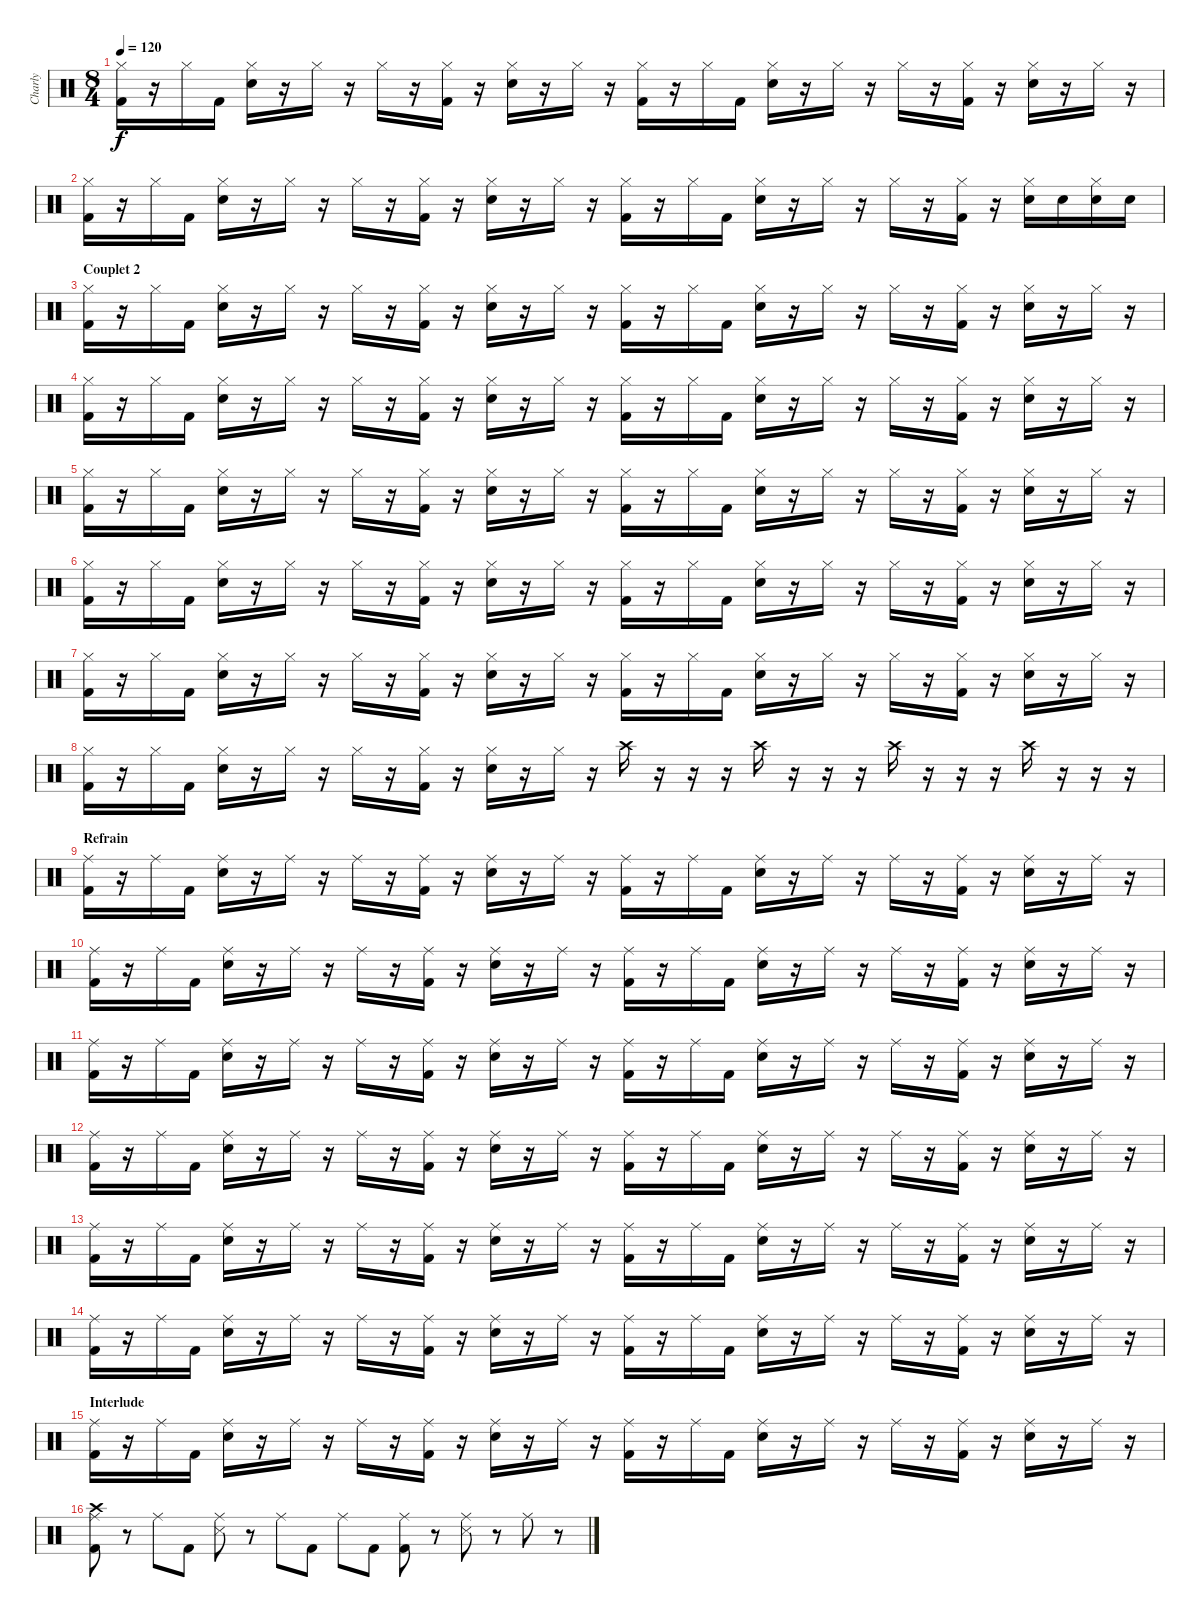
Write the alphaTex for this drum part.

\track ("Charly" "Charly") {instrument percussion}
\staff {score}
\articulation defaults
\ts (8 4)
\tempo 120
\clef neutral
\ks c
("Hi-Hat (closed)" "Kick (hit) 2").16{dy f} r.16 "Hi-Hat (closed)".16 "Kick (hit) 2".16 ("Hi-Hat (closed)" "Snare (hit) 2").16 r.16 "Hi-Hat (closed)".16 r.16 "Hi-Hat (closed)".16 r.16 ("Hi-Hat (closed)" "Kick (hit) 2").16 r.16 ("Hi-Hat (closed)" "Snare (hit) 2").16 r.16 "Hi-Hat (closed)".16 r.16 ("Hi-Hat (closed)" "Kick (hit) 2").16 r.16 "Hi-Hat (closed)".16 "Kick (hit) 2".16 ("Hi-Hat (closed)" "Snare (hit) 2").16 r.16 "Hi-Hat (closed)".16 r.16 "Hi-Hat (closed)".16 r.16 ("Hi-Hat (closed)" "Kick (hit) 2").16 r.16 ("Hi-Hat (closed)" "Snare (hit) 2").16 r.16 "Hi-Hat (closed)".16 r.16 |
("Hi-Hat (closed)" "Kick (hit) 2").16 r.16 "Hi-Hat (closed)".16 "Kick (hit) 2".16 ("Hi-Hat (closed)" "Snare (hit) 2").16 r.16 "Hi-Hat (closed)".16 r.16 "Hi-Hat (closed)".16 r.16 ("Hi-Hat (closed)" "Kick (hit) 2").16 r.16 ("Hi-Hat (closed)" "Snare (hit) 2").16 r.16 "Hi-Hat (closed)".16 r.16 ("Hi-Hat (closed)" "Kick (hit) 2").16 r.16 "Hi-Hat (closed)".16 "Kick (hit) 2".16 ("Hi-Hat (closed)" "Snare (hit) 2").16 r.16 "Hi-Hat (closed)".16 r.16 "Hi-Hat (closed)".16 r.16 ("Hi-Hat (closed)" "Kick (hit) 2").16 r.16 ("Hi-Hat (closed)" "Snare (hit) 2").16 "Snare (hit) 2".16 ("Hi-Hat (closed)" "Snare (hit) 2").16 "Snare (hit) 2".16 |
\section ("" "Couplet 2")
("Hi-Hat (closed)" "Kick (hit) 2").16 r.16 "Hi-Hat (closed)".16 "Kick (hit) 2".16 ("Hi-Hat (closed)" "Snare (hit) 2").16 r.16 "Hi-Hat (closed)".16 r.16 "Hi-Hat (closed)".16 r.16 ("Hi-Hat (closed)" "Kick (hit) 2").16 r.16 ("Hi-Hat (closed)" "Snare (hit) 2").16 r.16 "Hi-Hat (closed)".16 r.16 ("Hi-Hat (closed)" "Kick (hit) 2").16 r.16 "Hi-Hat (closed)".16 "Kick (hit) 2".16 ("Hi-Hat (closed)" "Snare (hit) 2").16 r.16 "Hi-Hat (closed)".16 r.16 "Hi-Hat (closed)".16 r.16 ("Hi-Hat (closed)" "Kick (hit) 2").16 r.16 ("Hi-Hat (closed)" "Snare (hit) 2").16 r.16 "Hi-Hat (closed)".16 r.16 |
("Hi-Hat (closed)" "Kick (hit) 2").16 r.16 "Hi-Hat (closed)".16 "Kick (hit) 2".16 ("Hi-Hat (closed)" "Snare (hit) 2").16 r.16 "Hi-Hat (closed)".16 r.16 "Hi-Hat (closed)".16 r.16 ("Hi-Hat (closed)" "Kick (hit) 2").16 r.16 ("Hi-Hat (closed)" "Snare (hit) 2").16 r.16 "Hi-Hat (closed)".16 r.16 ("Hi-Hat (closed)" "Kick (hit) 2").16 r.16 "Hi-Hat (closed)".16 "Kick (hit) 2".16 ("Hi-Hat (closed)" "Snare (hit) 2").16 r.16 "Hi-Hat (closed)".16 r.16 "Hi-Hat (closed)".16 r.16 ("Hi-Hat (closed)" "Kick (hit) 2").16 r.16 ("Hi-Hat (closed)" "Snare (hit) 2").16 r.16 "Hi-Hat (closed)".16 r.16 |
("Hi-Hat (closed)" "Kick (hit) 2").16 r.16 "Hi-Hat (closed)".16 "Kick (hit) 2".16 ("Hi-Hat (closed)" "Snare (hit) 2").16 r.16 "Hi-Hat (closed)".16 r.16 "Hi-Hat (closed)".16 r.16 ("Hi-Hat (closed)" "Kick (hit) 2").16 r.16 ("Hi-Hat (closed)" "Snare (hit) 2").16 r.16 "Hi-Hat (closed)".16 r.16 ("Hi-Hat (closed)" "Kick (hit) 2").16 r.16 "Hi-Hat (closed)".16 "Kick (hit) 2".16 ("Hi-Hat (closed)" "Snare (hit) 2").16 r.16 "Hi-Hat (closed)".16 r.16 "Hi-Hat (closed)".16 r.16 ("Hi-Hat (closed)" "Kick (hit) 2").16 r.16 ("Hi-Hat (closed)" "Snare (hit) 2").16 r.16 "Hi-Hat (closed)".16 r.16 |
("Hi-Hat (closed)" "Kick (hit) 2").16 r.16 "Hi-Hat (closed)".16 "Kick (hit) 2".16 ("Hi-Hat (closed)" "Snare (hit) 2").16 r.16 "Hi-Hat (closed)".16 r.16 "Hi-Hat (closed)".16 r.16 ("Hi-Hat (closed)" "Kick (hit) 2").16 r.16 ("Hi-Hat (closed)" "Snare (hit) 2").16 r.16 "Hi-Hat (closed)".16 r.16 ("Hi-Hat (closed)" "Kick (hit) 2").16 r.16 "Hi-Hat (closed)".16 "Kick (hit) 2".16 ("Hi-Hat (closed)" "Snare (hit) 2").16 r.16 "Hi-Hat (closed)".16 r.16 "Hi-Hat (closed)".16 r.16 ("Hi-Hat (closed)" "Kick (hit) 2").16 r.16 ("Hi-Hat (closed)" "Snare (hit) 2").16 r.16 "Hi-Hat (closed)".16 r.16 |
("Hi-Hat (closed)" "Kick (hit) 2").16 r.16 "Hi-Hat (closed)".16 "Kick (hit) 2".16 ("Hi-Hat (closed)" "Snare (hit) 2").16 r.16 "Hi-Hat (closed)".16 r.16 "Hi-Hat (closed)".16 r.16 ("Hi-Hat (closed)" "Kick (hit) 2").16 r.16 ("Hi-Hat (closed)" "Snare (hit) 2").16 r.16 "Hi-Hat (closed)".16 r.16 ("Hi-Hat (closed)" "Kick (hit) 2").16 r.16 "Hi-Hat (closed)".16 "Kick (hit) 2".16 ("Hi-Hat (closed)" "Snare (hit) 2").16 r.16 "Hi-Hat (closed)".16 r.16 "Hi-Hat (closed)".16 r.16 ("Hi-Hat (closed)" "Kick (hit) 2").16 r.16 ("Hi-Hat (closed)" "Snare (hit) 2").16 r.16 "Hi-Hat (closed)".16 r.16 |
("Hi-Hat (closed)" "Kick (hit) 2").16 r.16 "Hi-Hat (closed)".16 "Kick (hit) 2".16 ("Hi-Hat (closed)" "Snare (hit) 2").16 r.16 "Hi-Hat (closed)".16 r.16 "Hi-Hat (closed)".16 r.16 ("Hi-Hat (closed)" "Kick (hit) 2").16 r.16 ("Hi-Hat (closed)" "Snare (hit) 2").16 r.16 "Hi-Hat (closed)".16 r.16 "Crash high (hit)".16 r.16 r.16 r.16 "Crash high (hit)".16 r.16 r.16 r.16 "Crash high (hit)".16 r.16 r.16 r.16 "Crash high (hit)".16 r.16 r.16 r.16 |
\section ("" "Refrain")
("Ride (middle)" "Kick (hit) 2").16 r.16 "Ride (middle)".16 "Kick (hit) 2".16 ("Ride (middle)" "Snare (hit) 2").16 r.16 "Ride (middle)".16 r.16 "Ride (middle)".16 r.16 ("Ride (middle)" "Kick (hit) 2").16 r.16 ("Ride (middle)" "Snare (hit) 2").16 r.16 "Ride (middle)".16 r.16 ("Ride (middle)" "Kick (hit) 2").16 r.16 "Ride (middle)".16 "Kick (hit) 2".16 ("Ride (middle)" "Snare (hit) 2").16 r.16 "Ride (middle)".16 r.16 "Ride (middle)".16 r.16 ("Ride (middle)" "Kick (hit) 2").16 r.16 ("Ride (middle)" "Snare (hit) 2").16 r.16 "Ride (middle)".16 r.16 |
("Ride (middle)" "Kick (hit) 2").16 r.16 "Ride (middle)".16 "Kick (hit) 2".16 ("Ride (middle)" "Snare (hit) 2").16 r.16 "Ride (middle)".16 r.16 "Ride (middle)".16 r.16 ("Ride (middle)" "Kick (hit) 2").16 r.16 ("Ride (middle)" "Snare (hit) 2").16 r.16 "Ride (middle)".16 r.16 ("Ride (middle)" "Kick (hit) 2").16 r.16 "Ride (middle)".16 "Kick (hit) 2".16 ("Ride (middle)" "Snare (hit) 2").16 r.16 "Ride (middle)".16 r.16 "Ride (middle)".16 r.16 ("Ride (middle)" "Kick (hit) 2").16 r.16 ("Ride (middle)" "Snare (hit) 2").16 r.16 "Ride (middle)".16 r.16 |
("Ride (middle)" "Kick (hit) 2").16 r.16 "Ride (middle)".16 "Kick (hit) 2".16 ("Ride (middle)" "Snare (hit) 2").16 r.16 "Ride (middle)".16 r.16 "Ride (middle)".16 r.16 ("Ride (middle)" "Kick (hit) 2").16 r.16 ("Ride (middle)" "Snare (hit) 2").16 r.16 "Ride (middle)".16 r.16 ("Ride (middle)" "Kick (hit) 2").16 r.16 "Ride (middle)".16 "Kick (hit) 2".16 ("Ride (middle)" "Snare (hit) 2").16 r.16 "Ride (middle)".16 r.16 "Ride (middle)".16 r.16 ("Ride (middle)" "Kick (hit) 2").16 r.16 ("Ride (middle)" "Snare (hit) 2").16 r.16 "Ride (middle)".16 r.16 |
("Ride (middle)" "Kick (hit) 2").16 r.16 "Ride (middle)".16 "Kick (hit) 2".16 ("Ride (middle)" "Snare (hit) 2").16 r.16 "Ride (middle)".16 r.16 "Ride (middle)".16 r.16 ("Ride (middle)" "Kick (hit) 2").16 r.16 ("Ride (middle)" "Snare (hit) 2").16 r.16 "Ride (middle)".16 r.16 ("Ride (middle)" "Kick (hit) 2").16 r.16 "Ride (middle)".16 "Kick (hit) 2".16 ("Ride (middle)" "Snare (hit) 2").16 r.16 "Ride (middle)".16 r.16 "Ride (middle)".16 r.16 ("Ride (middle)" "Kick (hit) 2").16 r.16 ("Ride (middle)" "Snare (hit) 2").16 r.16 "Ride (middle)".16 r.16 |
("Ride (middle)" "Kick (hit) 2").16 r.16 "Ride (middle)".16 "Kick (hit) 2".16 ("Ride (middle)" "Snare (hit) 2").16 r.16 "Ride (middle)".16 r.16 "Ride (middle)".16 r.16 ("Ride (middle)" "Kick (hit) 2").16 r.16 ("Ride (middle)" "Snare (hit) 2").16 r.16 "Ride (middle)".16 r.16 ("Ride (middle)" "Kick (hit) 2").16 r.16 "Ride (middle)".16 "Kick (hit) 2".16 ("Ride (middle)" "Snare (hit) 2").16 r.16 "Ride (middle)".16 r.16 "Ride (middle)".16 r.16 ("Ride (middle)" "Kick (hit) 2").16 r.16 ("Ride (middle)" "Snare (hit) 2").16 r.16 "Ride (middle)".16 r.16 |
("Ride (middle)" "Kick (hit) 2").16 r.16 "Ride (middle)".16 "Kick (hit) 2".16 ("Ride (middle)" "Snare (hit) 2").16 r.16 "Ride (middle)".16 r.16 "Ride (middle)".16 r.16 ("Ride (middle)" "Kick (hit) 2").16 r.16 ("Ride (middle)" "Snare (hit) 2").16 r.16 "Ride (middle)".16 r.16 ("Ride (middle)" "Kick (hit) 2").16 r.16 "Ride (middle)".16 "Kick (hit) 2".16 ("Ride (middle)" "Snare (hit) 2").16 r.16 "Ride (middle)".16 r.16 "Ride (middle)".16 r.16 ("Ride (middle)" "Kick (hit) 2").16 r.16 ("Ride (middle)" "Snare (hit) 2").16 r.16 "Ride (middle)".16 r.16 |
\section ("" "Interlude")
("Ride (middle)" "Kick (hit) 2").16 r.16 "Ride (middle)".16 "Kick (hit) 2".16 ("Ride (middle)" "Snare (hit) 2").16 r.16 "Ride (middle)".16 r.16 "Ride (middle)".16 r.16 ("Ride (middle)" "Kick (hit) 2").16 r.16 ("Ride (middle)" "Snare (hit) 2").16 r.16 "Ride (middle)".16 r.16 ("Ride (middle)" "Kick (hit) 2").16 r.16 "Ride (middle)".16 "Kick (hit) 2".16 ("Ride (middle)" "Snare (hit) 2").16 r.16 "Ride (middle)".16 r.16 "Ride (middle)".16 r.16 ("Ride (middle)" "Kick (hit) 2").16 r.16 ("Ride (middle)" "Snare (hit) 2").16 r.16 "Ride (middle)".16 r.16 |
("Ride (middle)" "Crash high (hit)" "Kick (hit) 2").8 r.8 "Ride (middle)".8 "Kick (hit) 2".8 ("Ride (middle)" "Snare (side stick) 3").8 r.8 "Ride (middle)".8 "Kick (hit) 2".8 "Ride (middle)".8 "Kick (hit) 2".8 ("Ride (middle)" "Kick (hit) 2").8 r.8 ("Ride (middle)" "Snare (side stick) 3").8 r.8 "Ride (middle)".8 r.8
